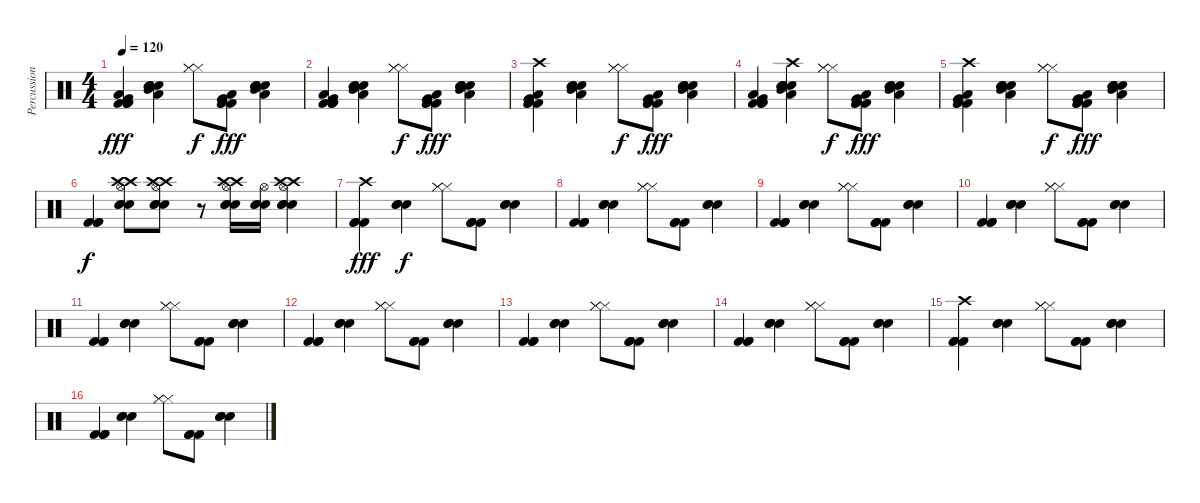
\track ("Percussion" "Percussion") {instrument percussion}
\staff {score}
\articulation defaults
\ts (4 4)
\tempo 120
\clef neutral
\ks c
("Kick (hit) 2" "Kick (hit) 2" "Kick (hit) 2" "Low Floor Tom (hit)" "Very Low Tom (hit)").4{dy fff} ("Snare (hit) 2" "Snare (hit) 2" "Snare (hit) 2" "Mid Tom (hit)" "Low Tom (hit)").4 ("Hi-Hat (closed)" "Hi-Hat (closed)" "Hi-Hat (closed)").8{dy f} ("Kick (hit) 2" "Kick (hit) 2" "Kick (hit) 2" "Low Floor Tom (hit)" "Very Low Tom (hit)").8{dy fff} ("Snare (hit) 2" "Snare (hit) 2" "Snare (hit) 2" "Mid Tom (hit)" "Low Tom (hit)").4 |
("Kick (hit) 2" "Kick (hit) 2" "Kick (hit) 2" "Low Floor Tom (hit)" "Very Low Tom (hit)").4 ("Snare (hit) 2" "Snare (hit) 2" "Snare (hit) 2" "Mid Tom (hit)" "Low Tom (hit)").4 ("Hi-Hat (closed)" "Hi-Hat (closed)" "Hi-Hat (closed)").8{dy f} ("Kick (hit) 2" "Kick (hit) 2" "Kick (hit) 2" "Low Floor Tom (hit)" "Very Low Tom (hit)").8{dy fff} ("Snare (hit) 2" "Snare (hit) 2" "Snare (hit) 2" "Mid Tom (hit)" "Low Tom (hit)").4 |
("Kick (hit) 2" "Kick (hit) 2" "Kick (hit) 2" "Crash high (hit)" "Low Floor Tom (hit)" "Very Low Tom (hit)").4 ("Snare (hit) 2" "Snare (hit) 2" "Snare (hit) 2" "Mid Tom (hit)" "Low Tom (hit)").4 ("Hi-Hat (closed)" "Hi-Hat (closed)" "Hi-Hat (closed)").8{dy f} ("Kick (hit) 2" "Kick (hit) 2" "Kick (hit) 2" "Low Floor Tom (hit)" "Very Low Tom (hit)").8{dy fff} ("Snare (hit) 2" "Snare (hit) 2" "Snare (hit) 2" "Mid Tom (hit)" "Low Tom (hit)").4 |
("Kick (hit) 2" "Kick (hit) 2" "Kick (hit) 2" "Low Floor Tom (hit)" "Very Low Tom (hit)").4 ("Snare (hit) 2" "Snare (hit) 2" "Snare (hit) 2" "Crash high (hit)" "Mid Tom (hit)" "Low Tom (hit)").4 ("Hi-Hat (closed)" "Hi-Hat (closed)" "Hi-Hat (closed)").8{dy f} ("Kick (hit) 2" "Kick (hit) 2" "Kick (hit) 2" "Low Floor Tom (hit)" "Very Low Tom (hit)").8{dy fff} ("Snare (hit) 2" "Snare (hit) 2" "Snare (hit) 2" "Mid Tom (hit)" "Low Tom (hit)").4 |
("Kick (hit) 2" "Kick (hit) 2" "Kick (hit) 2" "Crash high (hit)" "Low Floor Tom (hit)" "Very Low Tom (hit)").4 ("Snare (hit) 2" "Snare (hit) 2" "Snare (hit) 2" "Mid Tom (hit)" "Low Tom (hit)").4 ("Hi-Hat (closed)" "Hi-Hat (closed)" "Hi-Hat (closed)").8{dy f} ("Kick (hit) 2" "Kick (hit) 2" "Kick (hit) 2" "Low Floor Tom (hit)" "Very Low Tom (hit)").8{dy fff} ("Snare (hit) 2" "Snare (hit) 2" "Snare (hit) 2" "Mid Tom (hit)" "Low Tom (hit)").4 |
("Kick (hit) 2" "Kick (hit) 2" "Kick (hit) 2").4{dy f} ("Snare (hit) 2" "Snare (hit) 2" "Snare (hit) 2" "Hi-Hat (open)" "Crash high (hit)" "Crash high (hit)").8 ("Snare (hit) 2" "Snare (hit) 2" "Snare (hit) 2" "Hi-Hat (open)" "Crash high (hit)" "Crash high (hit)").8 r.8 ("Snare (hit) 2" "Snare (hit) 2" "Snare (hit) 2" "Hi-Hat (open)" "Crash high (hit)" "Crash high (hit)").16 ("Snare (hit) 2" "Snare (hit) 2" "Snare (hit) 2" "Hi-Hat (open)").16 ("Snare (hit) 2" "Snare (hit) 2" "Snare (hit) 2" "Hi-Hat (open)" "Crash high (hit)" "Crash high (hit)").4 |
("Kick (hit) 2" "Kick (hit) 2" "Kick (hit) 2" "Crash high (hit)").4{dy fff} ("Snare (hit) 2" "Snare (hit) 2" "Snare (hit) 2").4{dy f} ("Hi-Hat (closed)" "Hi-Hat (closed)" "Hi-Hat (closed)").8 ("Kick (hit) 2" "Kick (hit) 2" "Kick (hit) 2").8 ("Snare (hit) 2" "Snare (hit) 2" "Snare (hit) 2").4 |
("Kick (hit) 2" "Kick (hit) 2" "Kick (hit) 2").4 ("Snare (hit) 2" "Snare (hit) 2" "Snare (hit) 2").4 ("Hi-Hat (closed)" "Hi-Hat (closed)" "Hi-Hat (closed)").8 ("Kick (hit) 2" "Kick (hit) 2" "Kick (hit) 2").8 ("Snare (hit) 2" "Snare (hit) 2" "Snare (hit) 2").4 |
("Kick (hit) 2" "Kick (hit) 2" "Kick (hit) 2").4 ("Snare (hit) 2" "Snare (hit) 2" "Snare (hit) 2").4 ("Hi-Hat (closed)" "Hi-Hat (closed)" "Hi-Hat (closed)").8 ("Kick (hit) 2" "Kick (hit) 2" "Kick (hit) 2").8 ("Snare (hit) 2" "Snare (hit) 2" "Snare (hit) 2").4 |
("Kick (hit) 2" "Kick (hit) 2" "Kick (hit) 2").4 ("Snare (hit) 2" "Snare (hit) 2" "Snare (hit) 2").4 ("Hi-Hat (closed)" "Hi-Hat (closed)" "Hi-Hat (closed)").8 ("Kick (hit) 2" "Kick (hit) 2" "Kick (hit) 2").8 ("Snare (hit) 2" "Snare (hit) 2" "Snare (hit) 2").4 |
("Kick (hit) 2" "Kick (hit) 2" "Kick (hit) 2").4 ("Snare (hit) 2" "Snare (hit) 2" "Snare (hit) 2").4 ("Hi-Hat (closed)" "Hi-Hat (closed)" "Hi-Hat (closed)").8 ("Kick (hit) 2" "Kick (hit) 2" "Kick (hit) 2").8 ("Snare (hit) 2" "Snare (hit) 2" "Snare (hit) 2").4 |
("Kick (hit) 2" "Kick (hit) 2" "Kick (hit) 2").4 ("Snare (hit) 2" "Snare (hit) 2" "Snare (hit) 2").4 ("Hi-Hat (closed)" "Hi-Hat (closed)" "Hi-Hat (closed)").8 ("Kick (hit) 2" "Kick (hit) 2" "Kick (hit) 2").8 ("Snare (hit) 2" "Snare (hit) 2" "Snare (hit) 2").4 |
("Kick (hit) 2" "Kick (hit) 2" "Kick (hit) 2").4 ("Snare (hit) 2" "Snare (hit) 2" "Snare (hit) 2").4 ("Hi-Hat (closed)" "Hi-Hat (closed)" "Hi-Hat (closed)").8 ("Kick (hit) 2" "Kick (hit) 2" "Kick (hit) 2").8 ("Snare (hit) 2" "Snare (hit) 2" "Snare (hit) 2").4 |
("Kick (hit) 2" "Kick (hit) 2" "Kick (hit) 2").4 ("Snare (hit) 2" "Snare (hit) 2" "Snare (hit) 2").4 ("Hi-Hat (closed)" "Hi-Hat (closed)" "Hi-Hat (closed)").8 ("Kick (hit) 2" "Kick (hit) 2" "Kick (hit) 2").8 ("Snare (hit) 2" "Snare (hit) 2" "Snare (hit) 2").4 |
("Kick (hit) 2" "Kick (hit) 2" "Kick (hit) 2" "Crash high (hit)").4 ("Snare (hit) 2" "Snare (hit) 2" "Snare (hit) 2").4 ("Hi-Hat (closed)" "Hi-Hat (closed)" "Hi-Hat (closed)").8 ("Kick (hit) 2" "Kick (hit) 2" "Kick (hit) 2").8 ("Snare (hit) 2" "Snare (hit) 2" "Snare (hit) 2").4 |
("Kick (hit) 2" "Kick (hit) 2" "Kick (hit) 2").4 ("Snare (hit) 2" "Snare (hit) 2" "Snare (hit) 2").4 ("Hi-Hat (closed)" "Hi-Hat (closed)" "Hi-Hat (closed)").8 ("Kick (hit) 2" "Kick (hit) 2" "Kick (hit) 2").8 ("Snare (hit) 2" "Snare (hit) 2" "Snare (hit) 2").4
